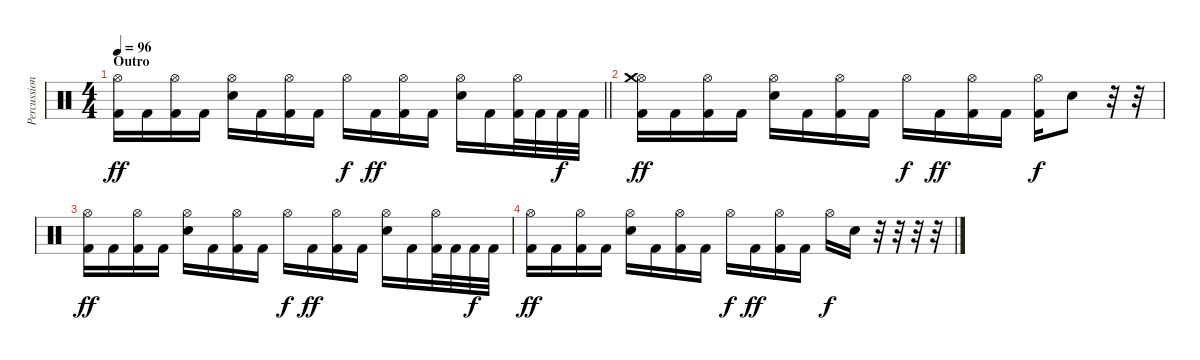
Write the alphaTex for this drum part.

\track ("Percussion" "Percussion") {instrument percussion}
\staff {score}
\articulation defaults
\ts (4 4)
\section ("" "Outro")
\tempo 96
\clef neutral
\barLineRight lightlight
\ks c
("Hi-Hat (open)" "Kick (hit) 2").16{dy ff} "Kick (hit) 2".16 ("Hi-Hat (open)" "Kick (hit) 2").16 "Kick (hit) 2".16 ("Hi-Hat (open)" "Electric Snare (hit)").16 "Kick (hit) 2".16 ("Hi-Hat (open)" "Kick (hit) 2").16 "Kick (hit) 2".16 "Hi-Hat (open)".16{dy f} "Kick (hit) 2".16{dy ff} ("Hi-Hat (open)" "Kick (hit) 2").16 "Kick (hit) 2".16 ("Hi-Hat (open)" "Electric Snare (hit)").16 "Kick (hit) 2".16 ("Hi-Hat (open)" "Kick (hit) 2").32 "Kick (hit) 2".32 "Kick (hit) 2".32{dy f} "Kick (hit) 2".32 |
("Hi-Hat (open)" "Crash medium (hit)" "Kick (hit) 2").16{dy ff} "Kick (hit) 2".16 ("Hi-Hat (open)" "Kick (hit) 2").16 "Kick (hit) 2".16 ("Hi-Hat (open)" "Electric Snare (hit)").16 "Kick (hit) 2".16 ("Hi-Hat (open)" "Kick (hit) 2").16 "Kick (hit) 2".16 "Hi-Hat (open)".16{dy f} "Kick (hit) 2".16{dy ff} ("Hi-Hat (open)" "Kick (hit) 2").16 "Kick (hit) 2".16 ("Hi-Hat (open)" "Kick (hit) 2").16{dy f} "Electric Snare (hit)".8 r.32 r.32 |
("Hi-Hat (open)" "Kick (hit) 2").16{dy ff} "Kick (hit) 2".16 ("Hi-Hat (open)" "Kick (hit) 2").16 "Kick (hit) 2".16 ("Hi-Hat (open)" "Electric Snare (hit)").16 "Kick (hit) 2".16 ("Hi-Hat (open)" "Kick (hit) 2").16 "Kick (hit) 2".16 "Hi-Hat (open)".16{dy f} "Kick (hit) 2".16{dy ff} ("Hi-Hat (open)" "Kick (hit) 2").16 "Kick (hit) 2".16 ("Hi-Hat (open)" "Electric Snare (hit)").16 "Kick (hit) 2".16 ("Hi-Hat (open)" "Kick (hit) 2").32 "Kick (hit) 2".32 "Kick (hit) 2".32{dy f} "Kick (hit) 2".32 |
("Hi-Hat (open)" "Kick (hit) 2").16{dy ff} "Kick (hit) 2".16 ("Hi-Hat (open)" "Kick (hit) 2").16 "Kick (hit) 2".16 ("Hi-Hat (open)" "Electric Snare (hit)").16 "Kick (hit) 2".16 ("Hi-Hat (open)" "Kick (hit) 2").16 "Kick (hit) 2".16 "Hi-Hat (open)".16{dy f} "Kick (hit) 2".16{dy ff} ("Hi-Hat (open)" "Kick (hit) 2").16 "Kick (hit) 2".16 "Hi-Hat (open)".16{dy f} "Electric Snare (hit)".16 r.32 r.32 r.32 r.32
